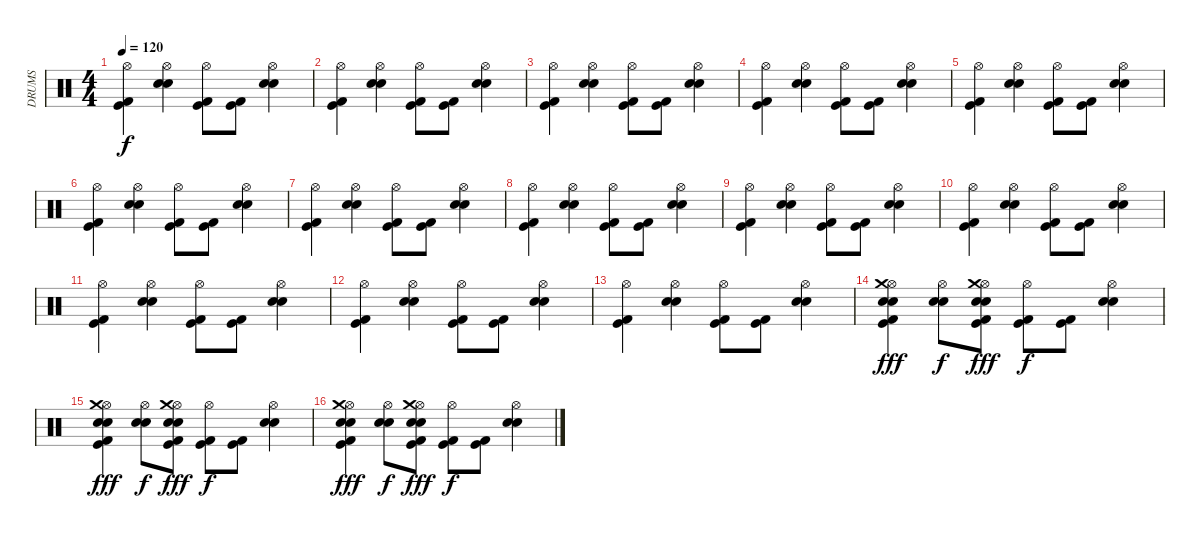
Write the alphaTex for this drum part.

\track ("DRUMS" "DRUMS") {instrument percussion}
\staff {score}
\articulation defaults
\ts (4 4)
\tempo 120
\clef neutral
\ks c
("Kick (hit)" "Kick (hit) 2" "Hi-Hat (open)").4{dy f} ("Snare (hit) 2" "Electric Snare (hit)" "Hi-Hat (open)").4 ("Kick (hit)" "Kick (hit) 2" "Hi-Hat (open)").8 ("Kick (hit)" "Kick (hit) 2").8 ("Snare (hit) 2" "Electric Snare (hit)" "Hi-Hat (open)").4 |
("Kick (hit)" "Kick (hit) 2" "Hi-Hat (open)").4 ("Snare (hit) 2" "Electric Snare (hit)" "Hi-Hat (open)").4 ("Kick (hit)" "Kick (hit) 2" "Hi-Hat (open)").8 ("Kick (hit)" "Kick (hit) 2").8 ("Snare (hit) 2" "Electric Snare (hit)" "Hi-Hat (open)").4 |
("Kick (hit)" "Kick (hit) 2" "Hi-Hat (open)").4 ("Snare (hit) 2" "Electric Snare (hit)" "Hi-Hat (open)").4 ("Kick (hit)" "Kick (hit) 2" "Hi-Hat (open)").8 ("Kick (hit)" "Kick (hit) 2").8 ("Snare (hit) 2" "Electric Snare (hit)" "Hi-Hat (open)").4 |
("Kick (hit)" "Kick (hit) 2" "Hi-Hat (open)").4 ("Snare (hit) 2" "Electric Snare (hit)" "Hi-Hat (open)").4 ("Kick (hit)" "Kick (hit) 2" "Hi-Hat (open)").8 ("Kick (hit)" "Kick (hit) 2").8 ("Snare (hit) 2" "Electric Snare (hit)" "Hi-Hat (open)").4 |
("Kick (hit)" "Kick (hit) 2" "Hi-Hat (open)").4 ("Snare (hit) 2" "Electric Snare (hit)" "Hi-Hat (open)").4 ("Kick (hit)" "Kick (hit) 2" "Hi-Hat (open)").8 ("Kick (hit)" "Kick (hit) 2").8 ("Snare (hit) 2" "Electric Snare (hit)" "Hi-Hat (open)").4 |
("Kick (hit)" "Kick (hit) 2" "Hi-Hat (open)").4 ("Snare (hit) 2" "Electric Snare (hit)" "Hi-Hat (open)").4 ("Kick (hit)" "Kick (hit) 2" "Hi-Hat (open)").8 ("Kick (hit)" "Kick (hit) 2").8 ("Snare (hit) 2" "Electric Snare (hit)" "Hi-Hat (open)").4 |
("Kick (hit)" "Kick (hit) 2" "Hi-Hat (open)").4 ("Snare (hit) 2" "Electric Snare (hit)" "Hi-Hat (open)").4 ("Kick (hit)" "Kick (hit) 2" "Hi-Hat (open)").8 ("Kick (hit)" "Kick (hit) 2").8 ("Snare (hit) 2" "Electric Snare (hit)" "Hi-Hat (open)").4 |
("Kick (hit)" "Kick (hit) 2" "Hi-Hat (open)").4 ("Snare (hit) 2" "Electric Snare (hit)" "Hi-Hat (open)").4 ("Kick (hit)" "Kick (hit) 2" "Hi-Hat (open)").8 ("Kick (hit)" "Kick (hit) 2").8 ("Snare (hit) 2" "Electric Snare (hit)" "Hi-Hat (open)").4 |
("Kick (hit)" "Kick (hit) 2" "Hi-Hat (open)").4 ("Snare (hit) 2" "Electric Snare (hit)" "Hi-Hat (open)").4 ("Kick (hit)" "Kick (hit) 2" "Hi-Hat (open)").8 ("Kick (hit)" "Kick (hit) 2").8 ("Snare (hit) 2" "Electric Snare (hit)" "Hi-Hat (open)").4 |
("Kick (hit)" "Kick (hit) 2" "Hi-Hat (open)").4 ("Snare (hit) 2" "Electric Snare (hit)" "Hi-Hat (open)").4 ("Kick (hit)" "Kick (hit) 2" "Hi-Hat (open)").8 ("Kick (hit)" "Kick (hit) 2").8 ("Snare (hit) 2" "Electric Snare (hit)" "Hi-Hat (open)").4 |
("Kick (hit)" "Kick (hit) 2" "Hi-Hat (open)").4 ("Snare (hit) 2" "Electric Snare (hit)" "Hi-Hat (open)").4 ("Kick (hit)" "Kick (hit) 2" "Hi-Hat (open)").8 ("Kick (hit)" "Kick (hit) 2").8 ("Snare (hit) 2" "Electric Snare (hit)" "Hi-Hat (open)").4 |
("Kick (hit)" "Kick (hit) 2" "Hi-Hat (open)").4 ("Snare (hit) 2" "Electric Snare (hit)" "Hi-Hat (open)").4 ("Kick (hit)" "Kick (hit) 2" "Hi-Hat (open)").8 ("Kick (hit)" "Kick (hit) 2").8 ("Snare (hit) 2" "Electric Snare (hit)" "Hi-Hat (open)").4 |
("Kick (hit)" "Kick (hit) 2" "Hi-Hat (open)").4 ("Snare (hit) 2" "Electric Snare (hit)" "Hi-Hat (open)").4 ("Kick (hit)" "Kick (hit) 2" "Hi-Hat (open)").8 ("Kick (hit)" "Kick (hit) 2").8 ("Snare (hit) 2" "Electric Snare (hit)" "Hi-Hat (open)").4 |
("Kick (hit)" "Kick (hit) 2" "Snare (hit) 2" "Electric Snare (hit)" "Hi-Hat (open)" "Crash medium (hit)").4{dy fff} ("Snare (hit) 2" "Electric Snare (hit)" "Hi-Hat (open)").8{dy f} ("Kick (hit)" "Kick (hit) 2" "Snare (hit) 2" "Electric Snare (hit)" "Hi-Hat (open)" "Crash medium (hit)").8{dy fff} ("Kick (hit)" "Kick (hit) 2" "Hi-Hat (open)").8{dy f} ("Kick (hit)" "Kick (hit) 2").8 ("Snare (hit) 2" "Electric Snare (hit)" "Hi-Hat (open)").4 |
("Kick (hit)" "Kick (hit) 2" "Snare (hit) 2" "Electric Snare (hit)" "Hi-Hat (open)" "Crash medium (hit)").4{dy fff} ("Snare (hit) 2" "Electric Snare (hit)" "Hi-Hat (open)").8{dy f} ("Kick (hit)" "Kick (hit) 2" "Snare (hit) 2" "Electric Snare (hit)" "Hi-Hat (open)" "Crash medium (hit)").8{dy fff} ("Kick (hit)" "Kick (hit) 2" "Hi-Hat (open)").8{dy f} ("Kick (hit)" "Kick (hit) 2").8 ("Snare (hit) 2" "Electric Snare (hit)" "Hi-Hat (open)").4 |
("Kick (hit)" "Kick (hit) 2" "Snare (hit) 2" "Electric Snare (hit)" "Hi-Hat (open)" "Crash medium (hit)").4{dy fff} ("Snare (hit) 2" "Electric Snare (hit)" "Hi-Hat (open)").8{dy f} ("Kick (hit)" "Kick (hit) 2" "Snare (hit) 2" "Electric Snare (hit)" "Hi-Hat (open)" "Crash medium (hit)").8{dy fff} ("Kick (hit)" "Kick (hit) 2" "Hi-Hat (open)").8{dy f} ("Kick (hit)" "Kick (hit) 2").8 ("Snare (hit) 2" "Electric Snare (hit)" "Hi-Hat (open)").4
